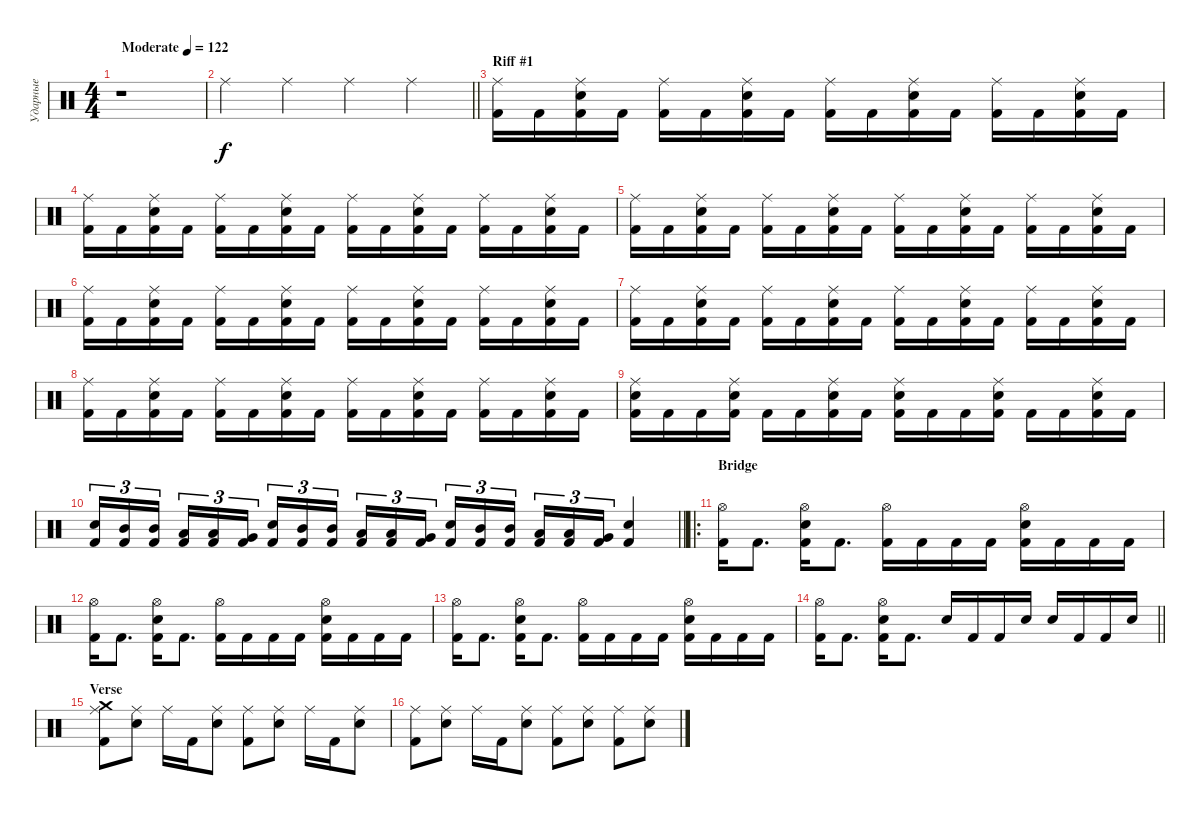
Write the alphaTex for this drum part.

\track ("Ударные" "Ударные") {instrument percussion}
\staff {score}
\articulation defaults
\ts (4 4)
\tempo (122 "Moderate")
\clef neutral
\ks c
r.1{dy f} |
\barLineRight lightlight "Ride (middle)".4 "Ride (middle)".4 "Ride (middle)".4 "Ride (middle)".4
|
\section ("" "Riff #1")
("Kick (hit) 2" "Ride (middle)").16 "Kick (hit) 2".16 ("Kick (hit) 2" "Electric Snare (hit)" "Ride (middle)").16 "Kick (hit) 2".16 ("Kick (hit) 2" "Ride (middle)").16 "Kick (hit) 2".16 ("Kick (hit) 2" "Electric Snare (hit)" "Ride (middle)").16 "Kick (hit) 2".16 ("Kick (hit) 2" "Ride (middle)").16 "Kick (hit) 2".16 ("Kick (hit) 2" "Electric Snare (hit)" "Ride (middle)").16 "Kick (hit) 2".16 ("Kick (hit) 2" "Ride (middle)").16 "Kick (hit) 2".16 ("Kick (hit) 2" "Electric Snare (hit)" "Ride (middle)").16 "Kick (hit) 2".16 |
("Kick (hit) 2" "Ride (middle)").16 "Kick (hit) 2".16 ("Kick (hit) 2" "Electric Snare (hit)" "Ride (middle)").16 "Kick (hit) 2".16 ("Kick (hit) 2" "Ride (middle)").16 "Kick (hit) 2".16 ("Kick (hit) 2" "Electric Snare (hit)" "Ride (middle)").16 "Kick (hit) 2".16 ("Kick (hit) 2" "Ride (middle)").16 "Kick (hit) 2".16 ("Kick (hit) 2" "Electric Snare (hit)" "Ride (middle)").16 "Kick (hit) 2".16 ("Kick (hit) 2" "Ride (middle)").16 "Kick (hit) 2".16 ("Kick (hit) 2" "Electric Snare (hit)" "Ride (middle)").16 "Kick (hit) 2".16 |
("Kick (hit) 2" "Ride (middle)").16 "Kick (hit) 2".16 ("Kick (hit) 2" "Electric Snare (hit)" "Ride (middle)").16 "Kick (hit) 2".16 ("Kick (hit) 2" "Ride (middle)").16 "Kick (hit) 2".16 ("Kick (hit) 2" "Electric Snare (hit)" "Ride (middle)").16 "Kick (hit) 2".16 ("Kick (hit) 2" "Ride (middle)").16 "Kick (hit) 2".16 ("Kick (hit) 2" "Electric Snare (hit)" "Ride (middle)").16 "Kick (hit) 2".16 ("Kick (hit) 2" "Ride (middle)").16 "Kick (hit) 2".16 ("Kick (hit) 2" "Electric Snare (hit)" "Ride (middle)").16 "Kick (hit) 2".16 |
("Kick (hit) 2" "Ride (middle)").16 "Kick (hit) 2".16 ("Kick (hit) 2" "Electric Snare (hit)" "Ride (middle)").16 "Kick (hit) 2".16 ("Kick (hit) 2" "Ride (middle)").16 "Kick (hit) 2".16 ("Kick (hit) 2" "Electric Snare (hit)" "Ride (middle)").16 "Kick (hit) 2".16 ("Kick (hit) 2" "Ride (middle)").16 "Kick (hit) 2".16 ("Kick (hit) 2" "Electric Snare (hit)" "Ride (middle)").16 "Kick (hit) 2".16 ("Kick (hit) 2" "Ride (middle)").16 "Kick (hit) 2".16 ("Kick (hit) 2" "Electric Snare (hit)" "Ride (middle)").16 "Kick (hit) 2".16 |
("Kick (hit) 2" "Ride (middle)").16 "Kick (hit) 2".16 ("Kick (hit) 2" "Electric Snare (hit)" "Ride (middle)").16 "Kick (hit) 2".16 ("Kick (hit) 2" "Ride (middle)").16 "Kick (hit) 2".16 ("Kick (hit) 2" "Electric Snare (hit)" "Ride (middle)").16 "Kick (hit) 2".16 ("Kick (hit) 2" "Ride (middle)").16 "Kick (hit) 2".16 ("Kick (hit) 2" "Electric Snare (hit)" "Ride (middle)").16 "Kick (hit) 2".16 ("Kick (hit) 2" "Ride (middle)").16 "Kick (hit) 2".16 ("Kick (hit) 2" "Electric Snare (hit)" "Ride (middle)").16 "Kick (hit) 2".16 |
("Kick (hit) 2" "Ride (middle)").16 "Kick (hit) 2".16 ("Kick (hit) 2" "Electric Snare (hit)" "Ride (middle)").16 "Kick (hit) 2".16 ("Kick (hit) 2" "Ride (middle)").16 "Kick (hit) 2".16 ("Kick (hit) 2" "Electric Snare (hit)" "Ride (middle)").16 "Kick (hit) 2".16 ("Kick (hit) 2" "Ride (middle)").16 "Kick (hit) 2".16 ("Kick (hit) 2" "Electric Snare (hit)" "Ride (middle)").16 "Kick (hit) 2".16 ("Kick (hit) 2" "Ride (middle)").16 "Kick (hit) 2".16 ("Kick (hit) 2" "Electric Snare (hit)" "Ride (middle)").16 "Kick (hit) 2".16 |
("Kick (hit) 2" "Electric Snare (hit)" "Ride (middle)").16 "Kick (hit) 2".16 "Kick (hit) 2".16 ("Kick (hit) 2" "Electric Snare (hit)" "Ride (middle)").16 "Kick (hit) 2".16 "Kick (hit) 2".16 ("Kick (hit) 2" "Electric Snare (hit)" "Ride (middle)").16 "Kick (hit) 2".16 ("Kick (hit) 2" "Electric Snare (hit)" "Ride (middle)").16 "Kick (hit) 2".16 "Kick (hit) 2".16 ("Kick (hit) 2" "Electric Snare (hit)" "Ride (middle)").16 "Kick (hit) 2".16 "Kick (hit) 2".16 ("Kick (hit) 2" "Electric Snare (hit)" "Ride (middle)").16 "Kick (hit) 2".16 |
\barLineRight lightlight
("Kick (hit) 2" "Electric Snare (hit)").16{tu (3 2)} ("Kick (hit) 2" "Mid Tom (hit)").16{tu (3 2)} ("Kick (hit) 2" "Mid Tom (hit)").16{tu (3 2) beam splitsecondary} ("Kick (hit) 2" "Low Tom (hit)").16{tu (3 2)} ("Kick (hit) 2" "Low Tom (hit)").16{tu (3 2)} ("Kick (hit) 2" "Very Low Tom (hit)").16{tu (3 2)} ("Kick (hit) 2" "Electric Snare (hit)").16{tu (3 2)} ("Kick (hit) 2" "Mid Tom (hit)").16{tu (3 2)} ("Kick (hit) 2" "Mid Tom (hit)").16{tu (3 2) beam splitsecondary} ("Kick (hit) 2" "Low Tom (hit)").16{tu (3 2)} ("Kick (hit) 2" "Low Tom (hit)").16{tu (3 2)} ("Kick (hit) 2" "Very Low Tom (hit)").16{tu (3 2)} ("Kick (hit) 2" "Electric Snare (hit)").16{tu (3 2)} ("Kick (hit) 2" "Mid Tom (hit)").16{tu (3 2)} ("Kick (hit) 2" "Mid Tom (hit)").16{tu (3 2) beam splitsecondary} ("Kick (hit) 2" "Low Tom (hit)").16{tu (3 2)} ("Kick (hit) 2" "Low Tom (hit)").16{tu (3 2)} ("Kick (hit) 2" "Very Low Tom (hit)").16{tu (3 2)} ("Kick (hit) 2" "Electric Snare (hit)").4 |
\ro
\section ("" "Bridge")
("Kick (hit) 2" "Hi-Hat (open)").16 "Kick (hit) 2".8{d} ("Kick (hit) 2" "Electric Snare (hit)" "Hi-Hat (open)").16 "Kick (hit) 2".8{d} ("Kick (hit) 2" "Hi-Hat (open)").16 "Kick (hit) 2".16 "Kick (hit) 2".16 "Kick (hit) 2".16 ("Kick (hit) 2" "Electric Snare (hit)" "Hi-Hat (open)").16 "Kick (hit) 2".16 "Kick (hit) 2".16 "Kick (hit) 2".16 |
("Kick (hit) 2" "Hi-Hat (open)").16 "Kick (hit) 2".8{d} ("Kick (hit) 2" "Electric Snare (hit)" "Hi-Hat (open)").16 "Kick (hit) 2".8{d} ("Kick (hit) 2" "Hi-Hat (open)").16 "Kick (hit) 2".16 "Kick (hit) 2".16 "Kick (hit) 2".16 ("Kick (hit) 2" "Electric Snare (hit)" "Hi-Hat (open)").16 "Kick (hit) 2".16 "Kick (hit) 2".16 "Kick (hit) 2".16 |
("Kick (hit) 2" "Hi-Hat (open)").16 "Kick (hit) 2".8{d} ("Kick (hit) 2" "Electric Snare (hit)" "Hi-Hat (open)").16 "Kick (hit) 2".8{d} ("Kick (hit) 2" "Hi-Hat (open)").16 "Kick (hit) 2".16 "Kick (hit) 2".16 "Kick (hit) 2".16 ("Kick (hit) 2" "Electric Snare (hit)" "Hi-Hat (open)").16 "Kick (hit) 2".16 "Kick (hit) 2".16 "Kick (hit) 2".16 |
\barLineRight lightlight
("Kick (hit) 2" "Hi-Hat (open)").16 "Kick (hit) 2".8{d} ("Kick (hit) 2" "Electric Snare (hit)" "Hi-Hat (open)").16 "Kick (hit) 2".8{d} "Electric Snare (hit)".16 "Kick (hit) 2".16 "Kick (hit) 2".16 "Electric Snare (hit)".16 "Electric Snare (hit)".16 "Kick (hit) 2".16 "Kick (hit) 2".16 "Electric Snare (hit)".16 |
\section ("" "Verse")
("Kick (hit) 2" "Ride (middle)" "Crash medium (hit)").8 ("Electric Snare (hit)" "Ride (middle)").8 "Ride (middle)".16 "Kick (hit) 2".16 ("Electric Snare (hit)" "Ride (middle)").8 ("Kick (hit) 2" "Ride (middle)").8 ("Electric Snare (hit)" "Ride (middle)").8 "Ride (middle)".16 "Kick (hit) 2".16 ("Electric Snare (hit)" "Ride (middle)").8 |
("Kick (hit) 2" "Ride (middle)").8 ("Electric Snare (hit)" "Ride (middle)").8 "Ride (middle)".16 "Kick (hit) 2".16 ("Electric Snare (hit)" "Ride (middle)").8 ("Kick (hit) 2" "Ride (middle)").8 ("Electric Snare (hit)" "Ride (middle)").8 ("Kick (hit) 2" "Ride (middle)").8 ("Electric Snare (hit)" "Ride (middle)").8
